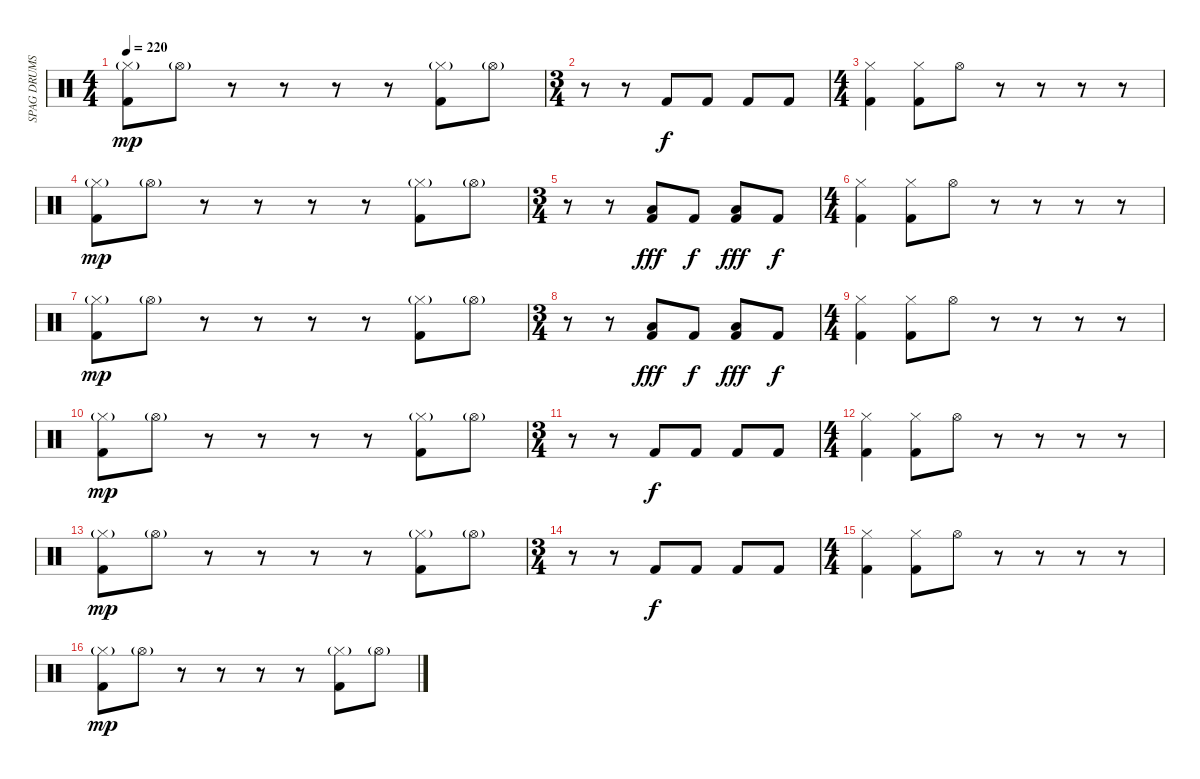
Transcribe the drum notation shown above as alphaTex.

\track ("SPAG DRUMS" "SPAG DRUMS") {instrument percussion}
\staff {score}
\articulation defaults
\ts (4 4)
\tempo 220
\clef neutral
\ks c
("Kick (hit) 2" "Hi-Hat (closed)"{g}).8{dy mp} "Hi-Hat (open)"{g}.8 r.8 r.8 r.8 r.8 ("Kick (hit) 2" "Hi-Hat (closed)"{g}).8 "Hi-Hat (open)"{g}.8 |
\ts (3 4)
r.8 r.8 "Kick (hit) 2".8{dy f} "Kick (hit) 2".8 "Kick (hit) 2".8 "Kick (hit) 2".8 |
\ts (4 4)
("Hi-Hat (closed)" "Kick (hit) 2").4 ("Hi-Hat (closed)" "Kick (hit) 2").8 "Hi-Hat (open)".8 r.8 r.8 r.8 r.8 |
("Kick (hit) 2" "Hi-Hat (closed)"{g}).8{dy mp} "Hi-Hat (open)"{g}.8 r.8 r.8 r.8 r.8 ("Kick (hit) 2" "Hi-Hat (closed)"{g}).8 "Hi-Hat (open)"{g}.8 |
\ts (3 4)
r.8 r.8 ("Low Floor Tom (hit)" "Kick (hit) 2").8{dy fff} "Kick (hit) 2".8{dy f} ("Low Floor Tom (hit)" "Kick (hit) 2").8{dy fff} "Kick (hit) 2".8{dy f} |
\ts (4 4)
("Hi-Hat (closed)" "Kick (hit) 2").4 ("Hi-Hat (closed)" "Kick (hit) 2").8 "Hi-Hat (open)".8 r.8 r.8 r.8 r.8 |
("Kick (hit) 2" "Hi-Hat (closed)"{g}).8{dy mp} "Hi-Hat (open)"{g}.8 r.8 r.8 r.8 r.8 ("Kick (hit) 2" "Hi-Hat (closed)"{g}).8 "Hi-Hat (open)"{g}.8 |
\ts (3 4)
r.8 r.8 ("Low Floor Tom (hit)" "Kick (hit) 2").8{dy fff} "Kick (hit) 2".8{dy f} ("Low Floor Tom (hit)" "Kick (hit) 2").8{dy fff} "Kick (hit) 2".8{dy f} |
\ts (4 4)
("Hi-Hat (closed)" "Kick (hit) 2").4 ("Hi-Hat (closed)" "Kick (hit) 2").8 "Hi-Hat (open)".8 r.8 r.8 r.8 r.8 |
("Kick (hit) 2" "Hi-Hat (closed)"{g}).8{dy mp} "Hi-Hat (open)"{g}.8 r.8 r.8 r.8 r.8 ("Kick (hit) 2" "Hi-Hat (closed)"{g}).8 "Hi-Hat (open)"{g}.8 |
\ts (3 4)
r.8 r.8 "Kick (hit) 2".8{dy f} "Kick (hit) 2".8 "Kick (hit) 2".8 "Kick (hit) 2".8 |
\ts (4 4)
("Hi-Hat (closed)" "Kick (hit) 2").4 ("Hi-Hat (closed)" "Kick (hit) 2").8 "Hi-Hat (open)".8 r.8 r.8 r.8 r.8 |
("Kick (hit) 2" "Hi-Hat (closed)"{g}).8{dy mp} "Hi-Hat (open)"{g}.8 r.8 r.8 r.8 r.8 ("Kick (hit) 2" "Hi-Hat (closed)"{g}).8 "Hi-Hat (open)"{g}.8 |
\ts (3 4)
r.8 r.8 "Kick (hit) 2".8{dy f} "Kick (hit) 2".8 "Kick (hit) 2".8 "Kick (hit) 2".8 |
\ts (4 4)
("Hi-Hat (closed)" "Kick (hit) 2").4 ("Hi-Hat (closed)" "Kick (hit) 2").8 "Hi-Hat (open)".8 r.8 r.8 r.8 r.8 |
("Kick (hit) 2" "Hi-Hat (closed)"{g}).8{dy mp} "Hi-Hat (open)"{g}.8 r.8 r.8 r.8 r.8 ("Kick (hit) 2" "Hi-Hat (closed)"{g}).8 "Hi-Hat (open)"{g}.8
